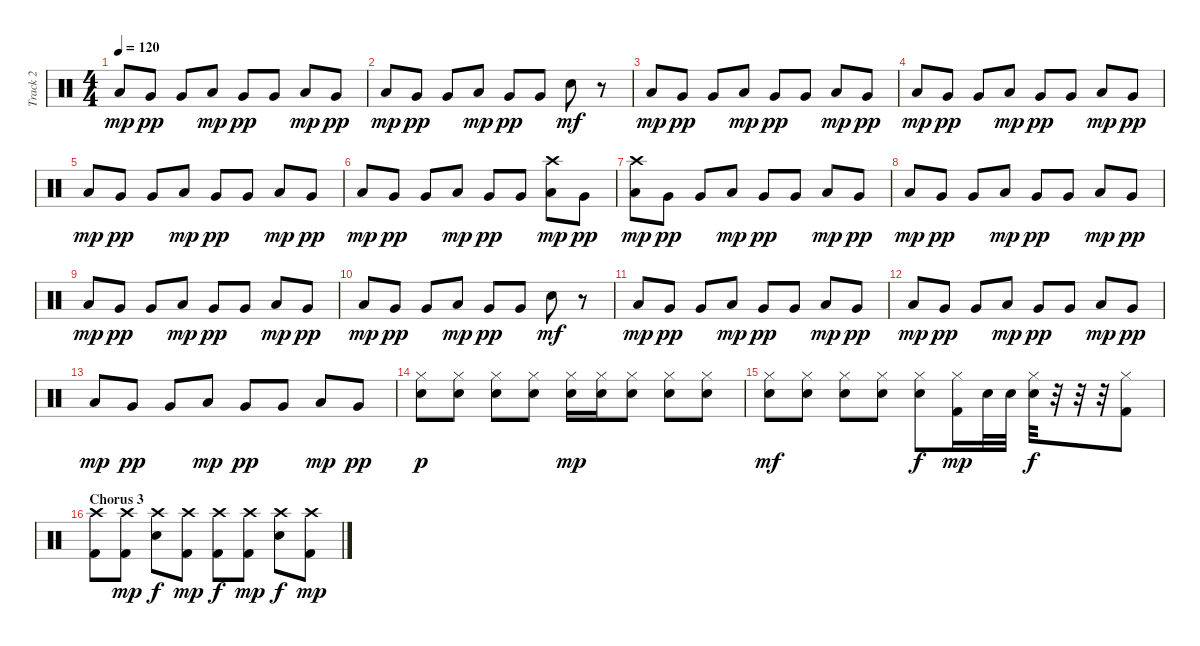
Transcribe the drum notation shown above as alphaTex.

\track ("Track 2" "Track 2") {instrument percussion}
\staff {score}
\articulation defaults
\ts (4 4)
\tempo 120
\clef neutral
\ks c "Low Tom (hit)".8{dy mp} "Very Low Tom (hit)".8{dy pp} "Very Low Tom (hit)".8 "Low Tom (hit)".8{dy mp} "Very Low Tom (hit)".8{dy pp} "Very Low Tom (hit)".8 "Low Tom (hit)".8{dy mp} "Very Low Tom (hit)".8{dy pp}
|
"Low Tom (hit)".8{dy mp} "Very Low Tom (hit)".8{dy pp} "Very Low Tom (hit)".8 "Low Tom (hit)".8{dy mp} "Very Low Tom (hit)".8{dy pp} "Very Low Tom (hit)".8 "Electric Snare (hit)".8{dy mf} r.8 |
"Low Tom (hit)".8{dy mp} "Very Low Tom (hit)".8{dy pp} "Very Low Tom (hit)".8 "Low Tom (hit)".8{dy mp} "Very Low Tom (hit)".8{dy pp} "Very Low Tom (hit)".8 "Low Tom (hit)".8{dy mp} "Very Low Tom (hit)".8{dy pp} |
"Low Tom (hit)".8{dy mp} "Very Low Tom (hit)".8{dy pp} "Very Low Tom (hit)".8 "Low Tom (hit)".8{dy mp} "Very Low Tom (hit)".8{dy pp} "Very Low Tom (hit)".8 "Low Tom (hit)".8{dy mp} "Very Low Tom (hit)".8{dy pp} |
"Low Tom (hit)".8{dy mp} "Very Low Tom (hit)".8{dy pp} "Very Low Tom (hit)".8 "Low Tom (hit)".8{dy mp} "Very Low Tom (hit)".8{dy pp} "Very Low Tom (hit)".8 "Low Tom (hit)".8{dy mp} "Very Low Tom (hit)".8{dy pp} |
"Low Tom (hit)".8{dy mp} "Very Low Tom (hit)".8{dy pp} "Very Low Tom (hit)".8 "Low Tom (hit)".8{dy mp} "Very Low Tom (hit)".8{dy pp} "Very Low Tom (hit)".8 ("Low Tom (hit)" "Crash high (hit)").8{dy mp} "Very Low Tom (hit)".8{dy pp} |
("Low Tom (hit)" "Crash high (hit)").8{dy mp} "Very Low Tom (hit)".8{dy pp} "Very Low Tom (hit)".8 "Low Tom (hit)".8{dy mp} "Very Low Tom (hit)".8{dy pp} "Very Low Tom (hit)".8 "Low Tom (hit)".8{dy mp} "Very Low Tom (hit)".8{dy pp} |
"Low Tom (hit)".8{dy mp} "Very Low Tom (hit)".8{dy pp} "Very Low Tom (hit)".8 "Low Tom (hit)".8{dy mp} "Very Low Tom (hit)".8{dy pp} "Very Low Tom (hit)".8 "Low Tom (hit)".8{dy mp} "Very Low Tom (hit)".8{dy pp} |
"Low Tom (hit)".8{dy mp} "Very Low Tom (hit)".8{dy pp} "Very Low Tom (hit)".8 "Low Tom (hit)".8{dy mp} "Very Low Tom (hit)".8{dy pp} "Very Low Tom (hit)".8 "Low Tom (hit)".8{dy mp} "Very Low Tom (hit)".8{dy pp} |
"Low Tom (hit)".8{dy mp} "Very Low Tom (hit)".8{dy pp} "Very Low Tom (hit)".8 "Low Tom (hit)".8{dy mp} "Very Low Tom (hit)".8{dy pp} "Very Low Tom (hit)".8 "Electric Snare (hit)".8{dy mf} r.8 |
"Low Tom (hit)".8{dy mp} "Very Low Tom (hit)".8{dy pp} "Very Low Tom (hit)".8 "Low Tom (hit)".8{dy mp} "Very Low Tom (hit)".8{dy pp} "Very Low Tom (hit)".8 "Low Tom (hit)".8{dy mp} "Very Low Tom (hit)".8{dy pp} |
"Low Tom (hit)".8{dy mp} "Very Low Tom (hit)".8{dy pp} "Very Low Tom (hit)".8 "Low Tom (hit)".8{dy mp} "Very Low Tom (hit)".8{dy pp} "Very Low Tom (hit)".8 "Low Tom (hit)".8{dy mp} "Very Low Tom (hit)".8{dy pp} |
"Low Tom (hit)".8{dy mp} "Very Low Tom (hit)".8{dy pp} "Very Low Tom (hit)".8 "Low Tom (hit)".8{dy mp} "Very Low Tom (hit)".8{dy pp} "Very Low Tom (hit)".8 "Low Tom (hit)".8{dy mp} "Very Low Tom (hit)".8{dy pp} |
("Hi-Hat (closed)" "Electric Snare (hit)").8{dy p} ("Hi-Hat (closed)" "Electric Snare (hit)").8 ("Hi-Hat (closed)" "Electric Snare (hit)").8 ("Hi-Hat (closed)" "Electric Snare (hit)").8 ("Hi-Hat (closed)" "Electric Snare (hit)").16{dy mp} ("Hi-Hat (closed)" "Electric Snare (hit)").16 ("Hi-Hat (closed)" "Electric Snare (hit)").8 ("Hi-Hat (closed)" "Electric Snare (hit)").8 ("Hi-Hat (closed)" "Electric Snare (hit)").8 |
("Hi-Hat (closed)" "Electric Snare (hit)").8{dy mf} ("Hi-Hat (closed)" "Electric Snare (hit)").8 ("Hi-Hat (closed)" "Electric Snare (hit)").8 ("Hi-Hat (closed)" "Electric Snare (hit)").8 ("Hi-Hat (closed)" "Electric Snare (hit)").8{dy f} ("Hi-Hat (closed)" "Kick (hit) 2").16{dy mp} "Electric Snare (hit)".32 "Electric Snare (hit)".32 ("Hi-Hat (closed)" "Electric Snare (hit)").32{dy f} r.32 r.32 r.32 ("Hi-Hat (closed)" "Kick (hit) 2").8 |
\section ("" "Chorus 3")
("Crash high (hit)" "Kick (hit) 2").8 ("Crash high (hit)" "Kick (hit) 2").8{dy mp} ("Crash high (hit)" "Electric Snare (hit)").8{dy f} ("Crash high (hit)" "Kick (hit) 2").8{dy mp} ("Crash high (hit)" "Kick (hit) 2").8{dy f} ("Crash high (hit)" "Kick (hit) 2").8{dy mp} ("Crash high (hit)" "Electric Snare (hit)").8{dy f} ("Crash high (hit)" "Kick (hit) 2").8{dy mp}
